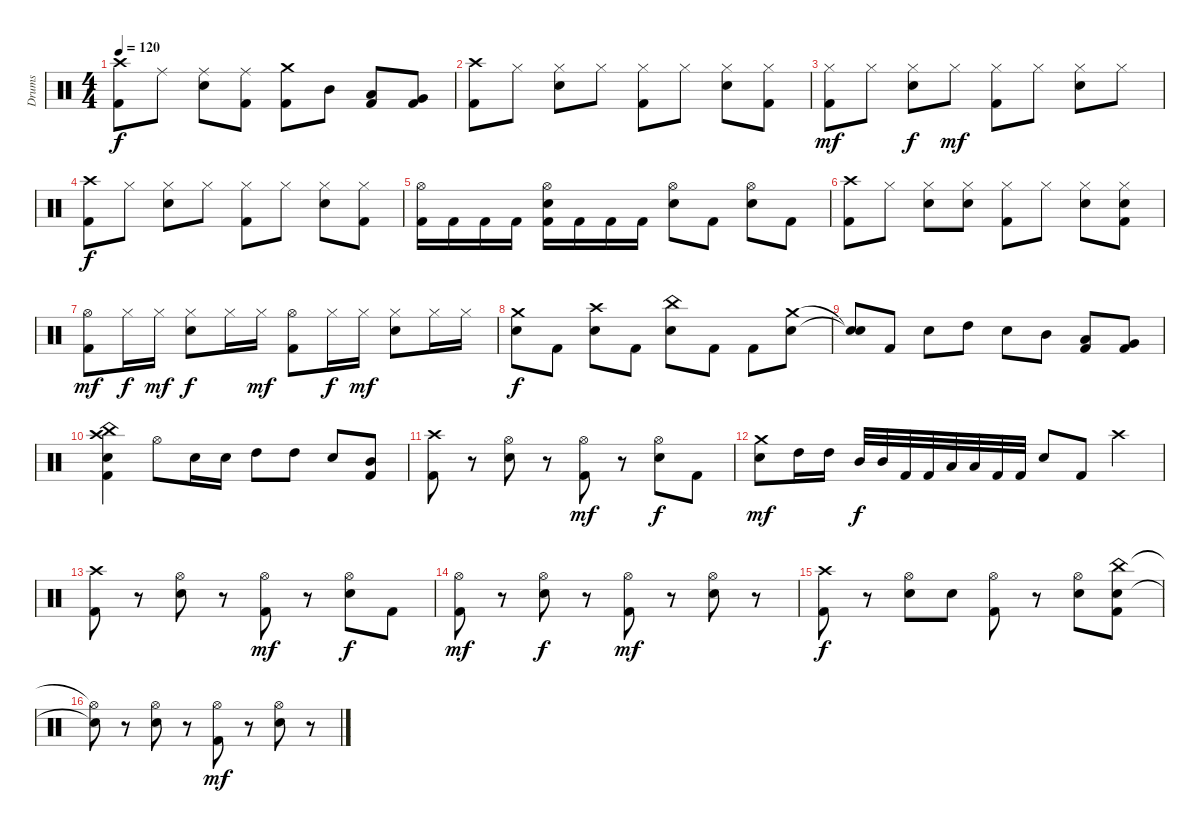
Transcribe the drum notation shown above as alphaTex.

\track ("Drums" "Drums") {instrument percussion}
\staff {score}
\articulation defaults
\ts (4 4)
\tempo 120
\clef neutral
\ks c
("Crash high (hit)" "Kick (hit) 2").8{dy f} "Ride (middle)".8 ("Ride (middle)" "Snare (hit) 2").8 ("Ride (middle)" "Kick (hit) 2").8 ("Crash medium (hit)" "Kick (hit) 2").8 "Mid Tom (hit)".8 ("Low Tom (hit)" "Kick (hit) 2").8 ("Very Low Tom (hit)" "Kick (hit) 2").8 |
("Crash high (hit)" "Kick (hit) 2").8 "Hi-Hat (closed)".8 ("Hi-Hat (closed)" "Snare (hit) 2").8 "Hi-Hat (closed)".8 ("Hi-Hat (closed)" "Kick (hit) 2").8 "Hi-Hat (closed)".8 ("Hi-Hat (closed)" "Snare (hit) 2").8 ("Hi-Hat (closed)" "Kick (hit) 2").8 |
("Hi-Hat (closed)" "Kick (hit) 2").8{dy mf} "Hi-Hat (closed)".8 ("Hi-Hat (closed)" "Snare (hit) 2").8{dy f} "Hi-Hat (closed)".8{dy mf} ("Hi-Hat (closed)" "Kick (hit) 2").8 "Hi-Hat (closed)".8 ("Hi-Hat (closed)" "Snare (hit) 2").8 "Hi-Hat (closed)".8 |
("Crash high (hit)" "Kick (hit) 2").8{dy f} "Hi-Hat (closed)".8 ("Hi-Hat (closed)" "Snare (hit) 2").8 "Hi-Hat (closed)".8 ("Hi-Hat (closed)" "Kick (hit) 2").8 "Hi-Hat (closed)".8 ("Hi-Hat (closed)" "Snare (hit) 2").8 ("Hi-Hat (closed)" "Kick (hit) 2").8 |
("Hi-Hat (open)" "Kick (hit) 2").16 "Kick (hit) 2".16 "Kick (hit) 2".16 "Kick (hit) 2".16 ("Hi-Hat (open)" "Snare (hit) 2" "Kick (hit) 2").16 "Kick (hit) 2".16 "Kick (hit) 2".16 "Kick (hit) 2".16 ("Hi-Hat (open)" "Snare (hit) 2").8 "Kick (hit) 2".8 ("Hi-Hat (open)" "Snare (hit) 2").8 "Kick (hit) 2".8 |
("Crash high (hit)" "Kick (hit) 2").8 "Hi-Hat (closed)".8 ("Hi-Hat (closed)" "Snare (hit) 2").8 ("Hi-Hat (closed)" "Snare (hit) 2").8 ("Hi-Hat (closed)" "Kick (hit) 2").8 "Hi-Hat (closed)".8 ("Hi-Hat (closed)" "Snare (hit) 2").8 ("Hi-Hat (closed)" "Snare (hit) 2" "Kick (hit) 2").8 |
("Hi-Hat (open)" "Kick (hit) 2").8{dy mf} "Hi-Hat (closed)".16{dy f} "Hi-Hat (closed)".16{dy mf} ("Hi-Hat (closed)" "Snare (hit) 2").8{dy f} "Hi-Hat (closed)".16 "Hi-Hat (closed)".16{dy mf} ("Hi-Hat (open)" "Kick (hit) 2").8 "Hi-Hat (closed)".16{dy f} "Hi-Hat (closed)".16{dy mf} ("Hi-Hat (closed)" "Snare (hit) 2").8 "Hi-Hat (closed)".16 "Hi-Hat (closed)".16 |
("Crash medium (hit)" "Snare (hit) 2").8{dy f} "Kick (hit) 2".8 ("Crash high (hit)" "Snare (hit) 2").8 "Kick (hit) 2".8 ("China (hit)" "Snare (hit) 2").8 "Kick (hit) 2".8 "Kick (hit) 2".8 ("Crash medium (hit)" "Snare (hit) 2").8 |
("Snare (hit)"{t} "Snare (hit)"{t}).8 "Kick (hit) 2".8 "Snare (hit) 2".8 "High Tom (hit)".8 "Snare (hit) 2".8 "Mid Tom (hit)".8 ("Low Tom (hit)" "Kick (hit) 2").8 ("Very Low Tom (hit)" "Kick (hit) 2").8 |
("China (hit)" "Crash high (hit)" "Snare (hit) 2" "Kick (hit) 2").4 "Hi-Hat (open)".8 "Snare (hit) 2".16 "Snare (hit) 2".16 "High Tom (hit)".8 "High Tom (hit)".8 "Snare (hit) 2".8 ("Mid Tom (hit)" "Kick (hit) 2").8 |
("Crash high (hit)" "Kick (hit) 2").8 r.8 ("Hi-Hat (open)" "Snare (hit) 2").8 r.8 ("Hi-Hat (open)" "Kick (hit) 2").8{dy mf} r.8 ("Hi-Hat (open)" "Snare (hit) 2").8{dy f} "Kick (hit) 2".8 |
("Crash medium (hit)" "Snare (hit) 2").8{dy mf} "High Tom (hit)".16 "High Tom (hit)".16 "Mid Tom (hit)".32{dy f} "Mid Tom (hit)".32 "Kick (hit) 2".32 "Kick (hit) 2".32 "Low Tom (hit)".32 "Low Tom (hit)".32 "Kick (hit) 2".32 "Kick (hit) 2".32 "Snare (hit) 2".8 "Kick (hit) 2".8 "Crash high (hit)".4 |
("Crash high (hit)" "Kick (hit) 2").8 r.8 ("Hi-Hat (open)" "Snare (hit) 2").8 r.8 ("Hi-Hat (open)" "Kick (hit) 2").8{dy mf} r.8 ("Hi-Hat (open)" "Snare (hit) 2").8{dy f} "Kick (hit) 2".8 |
("Hi-Hat (open)" "Kick (hit) 2").8{dy mf} r.8 ("Hi-Hat (open)" "Snare (hit) 2").8{dy f} r.8 ("Hi-Hat (open)" "Kick (hit) 2").8{dy mf} r.8 ("Hi-Hat (open)" "Snare (hit) 2").8 r.8 |
("Crash high (hit)" "Kick (hit) 2").8{dy f} r.8 ("Hi-Hat (open)" "Snare (hit) 2").8 "Snare (hit) 2".8 ("Hi-Hat (open)" "Kick (hit) 2").8 r.8 ("Hi-Hat (open)" "Snare (hit) 2").8 ("China (hit)" "Snare (hit) 2" "Kick (hit) 2").8 |
("Hi-Hat (open)"{t} "Snare (hit)"{t}).8 r.8 ("Hi-Hat (open)" "Snare (hit) 2").8 r.8 ("Hi-Hat (open)" "Kick (hit) 2").8{dy mf} r.8 ("Hi-Hat (open)" "Snare (hit) 2").8 r.8
